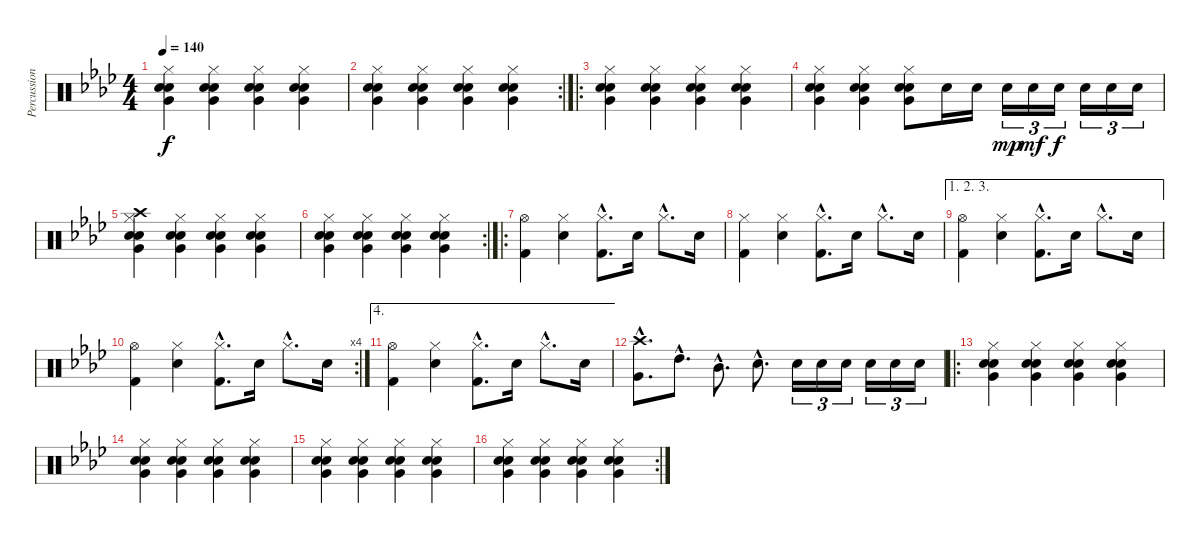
\track ("Percussion" "Percussion") {instrument percussion}
\staff {score}
\articulation defaults
\ts (4 4)
\tempo 140
\clef neutral
\ks fminor
("Electric Snare (hit)" "Very Low Tom (hit)" "Hand Clap (hit)" "Hi-Hat (closed)").4{dy f} ("Electric Snare (hit)" "Very Low Tom (hit)" "Hand Clap (hit)" "Hi-Hat (closed)").4 ("Electric Snare (hit)" "Very Low Tom (hit)" "Hand Clap (hit)" "Hi-Hat (closed)").4 ("Electric Snare (hit)" "Very Low Tom (hit)" "Hand Clap (hit)" "Hi-Hat (closed)").4 |
\rc 2
("Electric Snare (hit)" "Very Low Tom (hit)" "Hand Clap (hit)" "Hi-Hat (closed)").4 ("Electric Snare (hit)" "Very Low Tom (hit)" "Hand Clap (hit)" "Hi-Hat (closed)").4 ("Electric Snare (hit)" "Very Low Tom (hit)" "Hand Clap (hit)" "Hi-Hat (closed)").4 ("Electric Snare (hit)" "Very Low Tom (hit)" "Hand Clap (hit)" "Hi-Hat (closed)").4 |
\ro
("Electric Snare (hit)" "Very Low Tom (hit)" "Hand Clap (hit)" "Hi-Hat (closed)").4 ("Electric Snare (hit)" "Very Low Tom (hit)" "Hand Clap (hit)" "Hi-Hat (closed)").4 ("Electric Snare (hit)" "Very Low Tom (hit)" "Hand Clap (hit)" "Hi-Hat (closed)").4 ("Electric Snare (hit)" "Very Low Tom (hit)" "Hand Clap (hit)" "Hi-Hat (closed)").4 |
("Electric Snare (hit)" "Very Low Tom (hit)" "Hand Clap (hit)" "Hi-Hat (closed)").4 ("Electric Snare (hit)" "Very Low Tom (hit)" "Hand Clap (hit)" "Hi-Hat (closed)").4 ("Electric Snare (hit)" "Very Low Tom (hit)" "Hand Clap (hit)" "Hi-Hat (closed)").8 "Electric Snare (hit)".16 "Electric Snare (hit)".16 "Electric Snare (hit)".16{tu (3 2) dy mp} "Electric Snare (hit)".16{tu (3 2) dy mf} "Electric Snare (hit)".16{tu (3 2) dy f} "Electric Snare (hit)".16{tu (3 2)} "Electric Snare (hit)".16{tu (3 2)} "Electric Snare (hit)".16{tu (3 2)} |
("Electric Snare (hit)" "Very Low Tom (hit)" "Hand Clap (hit)" "Hi-Hat (closed)" "Crash high (hit)").4 ("Electric Snare (hit)" "Very Low Tom (hit)" "Hand Clap (hit)" "Hi-Hat (closed)").4 ("Electric Snare (hit)" "Very Low Tom (hit)" "Hand Clap (hit)" "Hi-Hat (closed)").4 ("Electric Snare (hit)" "Very Low Tom (hit)" "Hand Clap (hit)" "Hi-Hat (closed)").4 |
\rc 2
("Electric Snare (hit)" "Very Low Tom (hit)" "Hand Clap (hit)" "Hi-Hat (closed)").4 ("Electric Snare (hit)" "Very Low Tom (hit)" "Hand Clap (hit)" "Hi-Hat (closed)").4 ("Electric Snare (hit)" "Very Low Tom (hit)" "Hand Clap (hit)" "Hi-Hat (closed)").4 ("Electric Snare (hit)" "Very Low Tom (hit)" "Hand Clap (hit)" "Hi-Hat (closed)").4 |
\ro
("Hi-Hat (open)" "Kick (hit) 2").4 ("Hi-Hat (closed)" "Electric Snare (hit)").4 ("Hi-Hat (closed)"{hac} "Kick (hit) 2"{hac}).8{d} "Electric Snare (hit)".16 "Hi-Hat (closed)"{hac}.8{d} "Electric Snare (hit)".16 |
("Hi-Hat (closed)" "Kick (hit) 2").4 ("Hi-Hat (closed)" "Electric Snare (hit)").4 ("Hi-Hat (closed)"{hac} "Kick (hit) 2"{hac}).8{d} "Electric Snare (hit)".16 "Hi-Hat (closed)"{hac}.8{d} "Electric Snare (hit)".16 |
\ae (1 2 3)
("Hi-Hat (open)" "Kick (hit) 2").4 ("Hi-Hat (closed)" "Electric Snare (hit)").4 ("Hi-Hat (closed)"{hac} "Kick (hit) 2"{hac}).8{d} "Electric Snare (hit)".16 "Hi-Hat (closed)"{hac}.8{d} "Electric Snare (hit)".16 |
\rc 4
("Hi-Hat (open)" "Kick (hit) 2").4 ("Hi-Hat (closed)" "Electric Snare (hit)").4 ("Hi-Hat (closed)"{hac} "Kick (hit) 2"{hac}).8{d} "Electric Snare (hit)".16 "Hi-Hat (closed)"{hac}.8{d} "Electric Snare (hit)".16 |
\ae 4
("Hi-Hat (open)" "Kick (hit) 2").4 ("Hi-Hat (closed)" "Electric Snare (hit)").4 ("Hi-Hat (closed)"{hac} "Kick (hit) 2"{hac}).8{d} "Electric Snare (hit)".16 "Hi-Hat (closed)"{hac}.8{d} "Electric Snare (hit)".16 |
("Very Low Tom (hit)"{hac} "Crash high (hit)"{hac}).8{d} "High Tom (hit)"{hac}.8{d} "Mid Tom (hit)"{hac}.8{d} "Electric Snare (hit)"{hac}.8{d} "Electric Snare (hit)".16{tu (3 2)} "Electric Snare (hit)".16{tu (3 2)} "Electric Snare (hit)".16{tu (3 2)} "Electric Snare (hit)".16{tu (3 2)} "Electric Snare (hit)".16{tu (3 2)} "Electric Snare (hit)".16{tu (3 2)} |
\ro
("Electric Snare (hit)" "Very Low Tom (hit)" "Hand Clap (hit)" "Hi-Hat (closed)").4 ("Electric Snare (hit)" "Very Low Tom (hit)" "Hand Clap (hit)" "Hi-Hat (closed)").4 ("Electric Snare (hit)" "Very Low Tom (hit)" "Hand Clap (hit)" "Hi-Hat (closed)").4 ("Electric Snare (hit)" "Very Low Tom (hit)" "Hand Clap (hit)" "Hi-Hat (closed)").4 |
("Electric Snare (hit)" "Very Low Tom (hit)" "Hand Clap (hit)" "Hi-Hat (closed)").4 ("Electric Snare (hit)" "Very Low Tom (hit)" "Hand Clap (hit)" "Hi-Hat (closed)").4 ("Electric Snare (hit)" "Very Low Tom (hit)" "Hand Clap (hit)" "Hi-Hat (closed)").4 ("Electric Snare (hit)" "Very Low Tom (hit)" "Hand Clap (hit)" "Hi-Hat (closed)").4 |
("Electric Snare (hit)" "Very Low Tom (hit)" "Hand Clap (hit)" "Hi-Hat (closed)").4 ("Electric Snare (hit)" "Very Low Tom (hit)" "Hand Clap (hit)" "Hi-Hat (closed)").4 ("Electric Snare (hit)" "Very Low Tom (hit)" "Hand Clap (hit)" "Hi-Hat (closed)").4 ("Electric Snare (hit)" "Very Low Tom (hit)" "Hand Clap (hit)" "Hi-Hat (closed)").4 |
\rc 2
("Electric Snare (hit)" "Very Low Tom (hit)" "Hand Clap (hit)" "Hi-Hat (closed)").4 ("Electric Snare (hit)" "Very Low Tom (hit)" "Hand Clap (hit)" "Hi-Hat (closed)").4 ("Electric Snare (hit)" "Very Low Tom (hit)" "Hand Clap (hit)" "Hi-Hat (closed)").4 ("Electric Snare (hit)" "Very Low Tom (hit)" "Hand Clap (hit)" "Hi-Hat (closed)").4
